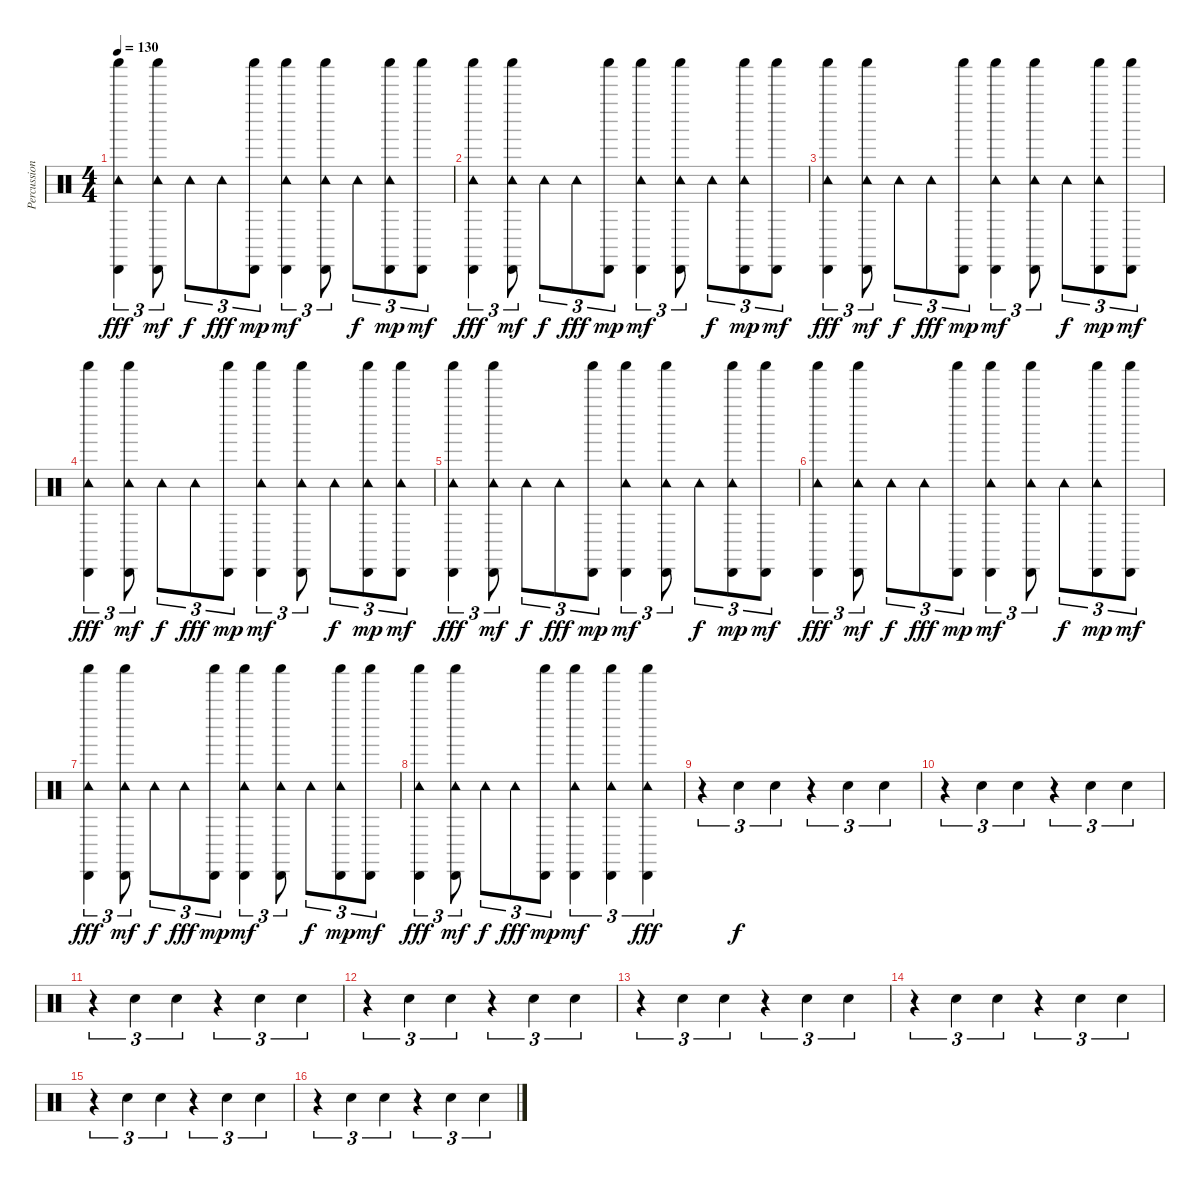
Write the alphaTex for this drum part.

\track ("Percussion" "Percussion") {instrument percussion}
\staff {score}
\articulation defaults
\ts (4 4)
\tempo 130
\clef neutral
\ks c
("Tambourine (hit)" "Cabasa (hit)" "Shaker (hit)").4{tu (3 2) dy fff} ("Tambourine (hit)" "Cabasa (hit)" "Shaker (hit)").8{tu (3 2) dy mf} "Tambourine (hit)".8{tu (3 2) dy f} "Tambourine (hit)".8{tu (3 2) dy fff} ("Cabasa (hit)" "Shaker (hit)").8{tu (3 2) dy mp} ("Tambourine (hit)" "Cabasa (hit)" "Shaker (hit)").4{tu (3 2) dy mf} ("Tambourine (hit)" "Cabasa (hit)" "Shaker (hit)").8{tu (3 2)} "Tambourine (hit)".8{tu (3 2) dy f} ("Tambourine (hit)" "Cabasa (hit)" "Shaker (hit)").8{tu (3 2) dy mp} ("Cabasa (hit)" "Shaker (hit)").8{tu (3 2) dy mf} |
("Tambourine (hit)" "Cabasa (hit)" "Shaker (hit)").4{tu (3 2) dy fff} ("Tambourine (hit)" "Cabasa (hit)" "Shaker (hit)").8{tu (3 2) dy mf} "Tambourine (hit)".8{tu (3 2) dy f} "Tambourine (hit)".8{tu (3 2) dy fff} ("Cabasa (hit)" "Shaker (hit)").8{tu (3 2) dy mp} ("Tambourine (hit)" "Cabasa (hit)" "Shaker (hit)").4{tu (3 2) dy mf} ("Tambourine (hit)" "Cabasa (hit)" "Shaker (hit)").8{tu (3 2)} "Tambourine (hit)".8{tu (3 2) dy f} ("Tambourine (hit)" "Cabasa (hit)" "Shaker (hit)").8{tu (3 2) dy mp} ("Cabasa (hit)" "Shaker (hit)").8{tu (3 2) dy mf} |
("Tambourine (hit)" "Cabasa (hit)" "Shaker (hit)").4{tu (3 2) dy fff} ("Tambourine (hit)" "Cabasa (hit)" "Shaker (hit)").8{tu (3 2) dy mf} "Tambourine (hit)".8{tu (3 2) dy f} "Tambourine (hit)".8{tu (3 2) dy fff} ("Cabasa (hit)" "Shaker (hit)").8{tu (3 2) dy mp} ("Tambourine (hit)" "Cabasa (hit)" "Shaker (hit)").4{tu (3 2) dy mf} ("Tambourine (hit)" "Cabasa (hit)" "Shaker (hit)").8{tu (3 2)} "Tambourine (hit)".8{tu (3 2) dy f} ("Tambourine (hit)" "Cabasa (hit)" "Shaker (hit)").8{tu (3 2) dy mp} ("Cabasa (hit)" "Shaker (hit)").8{tu (3 2) dy mf} |
("Tambourine (hit)" "Cabasa (hit)" "Shaker (hit)").4{tu (3 2) dy fff} ("Tambourine (hit)" "Cabasa (hit)" "Shaker (hit)").8{tu (3 2) dy mf} "Tambourine (hit)".8{tu (3 2) dy f} "Tambourine (hit)".8{tu (3 2) dy fff} ("Cabasa (hit)" "Shaker (hit)").8{tu (3 2) dy mp} ("Tambourine (hit)" "Cabasa (hit)" "Shaker (hit)").4{tu (3 2) dy mf} ("Tambourine (hit)" "Cabasa (hit)" "Shaker (hit)").8{tu (3 2)} "Tambourine (hit)".8{tu (3 2) dy f} ("Tambourine (hit)" "Cabasa (hit)" "Shaker (hit)").8{tu (3 2) dy mp} ("Tambourine (hit)" "Cabasa (hit)" "Shaker (hit)").8{tu (3 2) dy mf} |
("Tambourine (hit)" "Cabasa (hit)" "Shaker (hit)").4{tu (3 2) dy fff} ("Tambourine (hit)" "Cabasa (hit)" "Shaker (hit)").8{tu (3 2) dy mf} "Tambourine (hit)".8{tu (3 2) dy f} "Tambourine (hit)".8{tu (3 2) dy fff} ("Cabasa (hit)" "Shaker (hit)").8{tu (3 2) dy mp} ("Tambourine (hit)" "Cabasa (hit)" "Shaker (hit)").4{tu (3 2) dy mf} ("Tambourine (hit)" "Cabasa (hit)" "Shaker (hit)").8{tu (3 2)} "Tambourine (hit)".8{tu (3 2) dy f} ("Tambourine (hit)" "Cabasa (hit)" "Shaker (hit)").8{tu (3 2) dy mp} ("Cabasa (hit)" "Shaker (hit)").8{tu (3 2) dy mf} |
("Tambourine (hit)" "Cabasa (hit)" "Shaker (hit)").4{tu (3 2) dy fff} ("Tambourine (hit)" "Cabasa (hit)" "Shaker (hit)").8{tu (3 2) dy mf} "Tambourine (hit)".8{tu (3 2) dy f} "Tambourine (hit)".8{tu (3 2) dy fff} ("Cabasa (hit)" "Shaker (hit)").8{tu (3 2) dy mp} ("Tambourine (hit)" "Cabasa (hit)" "Shaker (hit)").4{tu (3 2) dy mf} ("Tambourine (hit)" "Cabasa (hit)" "Shaker (hit)").8{tu (3 2)} "Tambourine (hit)".8{tu (3 2) dy f} ("Tambourine (hit)" "Cabasa (hit)" "Shaker (hit)").8{tu (3 2) dy mp} ("Cabasa (hit)" "Shaker (hit)").8{tu (3 2) dy mf} |
("Tambourine (hit)" "Cabasa (hit)" "Shaker (hit)").4{tu (3 2) dy fff} ("Tambourine (hit)" "Cabasa (hit)" "Shaker (hit)").8{tu (3 2) dy mf} "Tambourine (hit)".8{tu (3 2) dy f} "Tambourine (hit)".8{tu (3 2) dy fff} ("Cabasa (hit)" "Shaker (hit)").8{tu (3 2) dy mp} ("Tambourine (hit)" "Cabasa (hit)" "Shaker (hit)").4{tu (3 2) dy mf} ("Tambourine (hit)" "Cabasa (hit)" "Shaker (hit)").8{tu (3 2)} "Tambourine (hit)".8{tu (3 2) dy f} ("Tambourine (hit)" "Cabasa (hit)" "Shaker (hit)").8{tu (3 2) dy mp} ("Cabasa (hit)" "Shaker (hit)").8{tu (3 2) dy mf} |
("Tambourine (hit)" "Cabasa (hit)" "Shaker (hit)").4{tu (3 2) dy fff} ("Tambourine (hit)" "Cabasa (hit)" "Shaker (hit)").8{tu (3 2) dy mf} "Tambourine (hit)".8{tu (3 2) dy f} "Tambourine (hit)".8{tu (3 2) dy fff} ("Cabasa (hit)" "Shaker (hit)").8{tu (3 2) dy mp} ("Tambourine (hit)" "Cabasa (hit)" "Shaker (hit)").4{tu (3 2) dy mf} ("Tambourine (hit)" "Cabasa (hit)" "Shaker (hit)").4{tu (3 2)} ("Tambourine (hit)" "Cabasa (hit)" "Shaker (hit)").4{tu (3 2) dy fff} |
r.4{tu (3 2)} "Hand Clap (hit)".4{tu (3 2) dy f} "Hand Clap (hit)".4{tu (3 2)} r.4{tu (3 2)} "Hand Clap (hit)".4{tu (3 2)} "Hand Clap (hit)".4{tu (3 2)} |
r.4{tu (3 2)} "Hand Clap (hit)".4{tu (3 2)} "Hand Clap (hit)".4{tu (3 2)} r.4{tu (3 2)} "Hand Clap (hit)".4{tu (3 2)} "Hand Clap (hit)".4{tu (3 2)} |
r.4{tu (3 2)} "Hand Clap (hit)".4{tu (3 2)} "Hand Clap (hit)".4{tu (3 2)} r.4{tu (3 2)} "Hand Clap (hit)".4{tu (3 2)} "Hand Clap (hit)".4{tu (3 2)} |
r.4{tu (3 2)} "Hand Clap (hit)".4{tu (3 2)} "Hand Clap (hit)".4{tu (3 2)} r.4{tu (3 2)} "Hand Clap (hit)".4{tu (3 2)} "Hand Clap (hit)".4{tu (3 2)} |
r.4{tu (3 2)} "Hand Clap (hit)".4{tu (3 2)} "Hand Clap (hit)".4{tu (3 2)} r.4{tu (3 2)} "Hand Clap (hit)".4{tu (3 2)} "Hand Clap (hit)".4{tu (3 2)} |
r.4{tu (3 2)} "Hand Clap (hit)".4{tu (3 2)} "Hand Clap (hit)".4{tu (3 2)} r.4{tu (3 2)} "Hand Clap (hit)".4{tu (3 2)} "Hand Clap (hit)".4{tu (3 2)} |
r.4{tu (3 2)} "Hand Clap (hit)".4{tu (3 2)} "Hand Clap (hit)".4{tu (3 2)} r.4{tu (3 2)} "Hand Clap (hit)".4{tu (3 2)} "Hand Clap (hit)".4{tu (3 2)} |
r.4{tu (3 2)} "Hand Clap (hit)".4{tu (3 2)} "Hand Clap (hit)".4{tu (3 2)} r.4{tu (3 2)} "Hand Clap (hit)".4{tu (3 2)} "Hand Clap (hit)".4{tu (3 2)}
